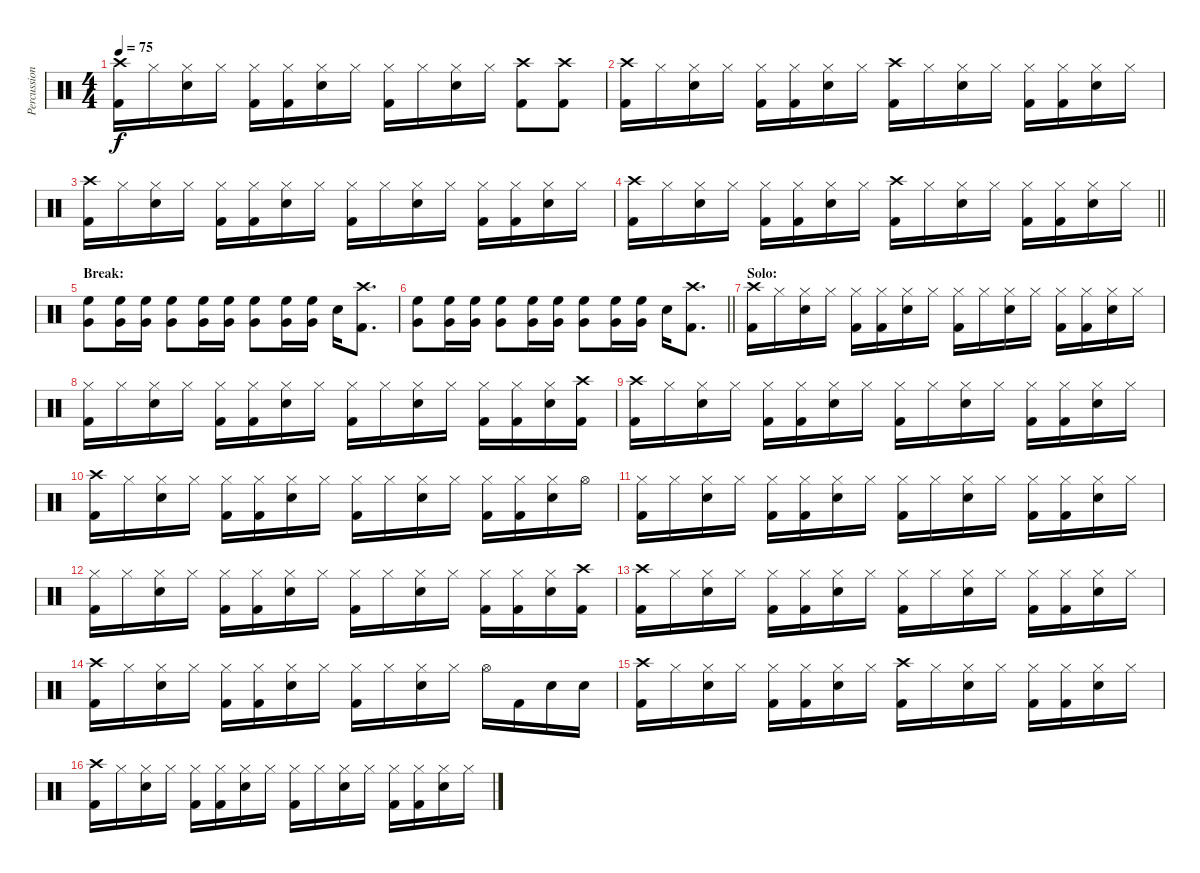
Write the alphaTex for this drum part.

\track ("Percussion" "Percussion") {instrument percussion}
\staff {score}
\articulation defaults
\ts (4 4)
\tempo 75
\clef neutral
\ks c
("Crash high (hit)" "Kick (hit) 2").16{dy f} "Hi-Hat (closed)".16 ("Hi-Hat (closed)" "Electric Snare (hit)").16 "Hi-Hat (closed)".16 ("Hi-Hat (closed)" "Kick (hit) 2").16 ("Hi-Hat (closed)" "Kick (hit) 2").16 ("Hi-Hat (closed)" "Electric Snare (hit)").16 "Hi-Hat (closed)".16 ("Hi-Hat (closed)" "Kick (hit) 2").16 "Hi-Hat (closed)".16 ("Hi-Hat (closed)" "Electric Snare (hit)").16 "Hi-Hat (closed)".16 ("Crash high (hit)" "Kick (hit) 2").8 ("Crash high (hit)" "Kick (hit) 2").8 |
("Crash high (hit)" "Kick (hit) 2").16 "Hi-Hat (closed)".16 ("Hi-Hat (closed)" "Electric Snare (hit)").16 "Hi-Hat (closed)".16 ("Hi-Hat (closed)" "Kick (hit) 2").16 ("Hi-Hat (closed)" "Kick (hit) 2").16 ("Hi-Hat (closed)" "Electric Snare (hit)").16 "Hi-Hat (closed)".16 ("Crash high (hit)" "Kick (hit) 2").16 "Hi-Hat (closed)".16 ("Hi-Hat (closed)" "Electric Snare (hit)").16 "Hi-Hat (closed)".16 ("Hi-Hat (closed)" "Kick (hit) 2").16 ("Hi-Hat (closed)" "Kick (hit) 2").16 ("Hi-Hat (closed)" "Electric Snare (hit)").16 "Hi-Hat (closed)".16 |
("Crash high (hit)" "Kick (hit) 2").16 "Hi-Hat (closed)".16 ("Hi-Hat (closed)" "Electric Snare (hit)").16 "Hi-Hat (closed)".16 ("Hi-Hat (closed)" "Kick (hit) 2").16 ("Hi-Hat (closed)" "Kick (hit) 2").16 ("Hi-Hat (closed)" "Electric Snare (hit)").16 "Hi-Hat (closed)".16 ("Hi-Hat (closed)" "Kick (hit) 2").16 "Hi-Hat (closed)".16 ("Hi-Hat (closed)" "Electric Snare (hit)").16 "Hi-Hat (closed)".16 ("Hi-Hat (closed)" "Kick (hit) 2").16 ("Hi-Hat (closed)" "Kick (hit) 2").16 ("Hi-Hat (closed)" "Electric Snare (hit)").16 "Hi-Hat (closed)".16 |
\barLineRight lightlight
("Crash high (hit)" "Kick (hit) 2").16 "Hi-Hat (closed)".16 ("Hi-Hat (closed)" "Electric Snare (hit)").16 "Hi-Hat (closed)".16 ("Hi-Hat (closed)" "Kick (hit) 2").16 ("Hi-Hat (closed)" "Kick (hit) 2").16 ("Hi-Hat (closed)" "Electric Snare (hit)").16 "Hi-Hat (closed)".16 ("Crash high (hit)" "Kick (hit) 2").16 "Hi-Hat (closed)".16 ("Hi-Hat (closed)" "Electric Snare (hit)").16 "Hi-Hat (closed)".16 ("Hi-Hat (closed)" "Kick (hit) 2").16 ("Hi-Hat (closed)" "Kick (hit) 2").16 ("Hi-Hat (closed)" "Electric Snare (hit)").16 "Hi-Hat (closed)".16 |
\section ("" "Break:")
("High Floor Tom (hit)" "Very Low Tom (hit)").8 ("High Floor Tom (hit)" "Very Low Tom (hit)").16 ("High Floor Tom (hit)" "Very Low Tom (hit)").16 ("High Floor Tom (hit)" "Very Low Tom (hit)").8 ("High Floor Tom (hit)" "Very Low Tom (hit)").16 ("High Floor Tom (hit)" "Very Low Tom (hit)").16 ("High Floor Tom (hit)" "Very Low Tom (hit)").8 ("High Floor Tom (hit)" "Very Low Tom (hit)").16 ("High Floor Tom (hit)" "Very Low Tom (hit)").16 "Electric Snare (hit)".16 ("Crash high (hit)" "Kick (hit) 2").8{d} |
\barLineRight lightlight
("High Floor Tom (hit)" "Very Low Tom (hit)").8 ("High Floor Tom (hit)" "Very Low Tom (hit)").16 ("High Floor Tom (hit)" "Very Low Tom (hit)").16 ("High Floor Tom (hit)" "Very Low Tom (hit)").8 ("High Floor Tom (hit)" "Very Low Tom (hit)").16 ("High Floor Tom (hit)" "Very Low Tom (hit)").16 ("High Floor Tom (hit)" "Very Low Tom (hit)").8 ("High Floor Tom (hit)" "Very Low Tom (hit)").16 ("High Floor Tom (hit)" "Very Low Tom (hit)").16 "Electric Snare (hit)".16 ("Crash high (hit)" "Kick (hit) 2").8{d} |
\section ("" "Solo:")
("Crash high (hit)" "Kick (hit) 2").16 "Hi-Hat (closed)".16 ("Hi-Hat (closed)" "Electric Snare (hit)").16 "Hi-Hat (closed)".16 ("Hi-Hat (closed)" "Kick (hit) 2").16 ("Hi-Hat (closed)" "Kick (hit) 2").16 ("Hi-Hat (closed)" "Electric Snare (hit)").16 "Hi-Hat (closed)".16 ("Hi-Hat (closed)" "Kick (hit) 2").16 "Hi-Hat (closed)".16 ("Hi-Hat (closed)" "Electric Snare (hit)").16 "Hi-Hat (closed)".16 ("Hi-Hat (closed)" "Kick (hit) 2").16 ("Hi-Hat (closed)" "Kick (hit) 2").16 ("Hi-Hat (closed)" "Electric Snare (hit)").16 "Hi-Hat (closed)".16 |
("Hi-Hat (closed)" "Kick (hit) 2").16 "Hi-Hat (closed)".16 ("Hi-Hat (closed)" "Electric Snare (hit)").16 "Hi-Hat (closed)".16 ("Hi-Hat (closed)" "Kick (hit) 2").16 ("Hi-Hat (closed)" "Kick (hit) 2").16 ("Hi-Hat (closed)" "Electric Snare (hit)").16 "Hi-Hat (closed)".16 ("Hi-Hat (closed)" "Kick (hit) 2").16 "Hi-Hat (closed)".16 ("Hi-Hat (closed)" "Electric Snare (hit)").16 "Hi-Hat (closed)".16 ("Hi-Hat (closed)" "Kick (hit) 2").16 ("Hi-Hat (closed)" "Kick (hit) 2").16 ("Hi-Hat (closed)" "Electric Snare (hit)").16 ("Crash high (hit)" "Kick (hit) 2").16 |
("Crash high (hit)" "Kick (hit) 2").16 "Hi-Hat (closed)".16 ("Hi-Hat (closed)" "Electric Snare (hit)").16 "Hi-Hat (closed)".16 ("Hi-Hat (closed)" "Kick (hit) 2").16 ("Hi-Hat (closed)" "Kick (hit) 2").16 ("Hi-Hat (closed)" "Electric Snare (hit)").16 "Hi-Hat (closed)".16 ("Hi-Hat (closed)" "Kick (hit) 2").16 "Hi-Hat (closed)".16 ("Hi-Hat (closed)" "Electric Snare (hit)").16 "Hi-Hat (closed)".16 ("Hi-Hat (closed)" "Kick (hit) 2").16 ("Hi-Hat (closed)" "Kick (hit) 2").16 ("Hi-Hat (closed)" "Electric Snare (hit)").16 "Hi-Hat (closed)".16 |
("Crash high (hit)" "Kick (hit) 2").16 "Hi-Hat (closed)".16 ("Hi-Hat (closed)" "Electric Snare (hit)").16 "Hi-Hat (closed)".16 ("Hi-Hat (closed)" "Kick (hit) 2").16 ("Hi-Hat (closed)" "Kick (hit) 2").16 ("Hi-Hat (closed)" "Electric Snare (hit)").16 "Hi-Hat (closed)".16 ("Hi-Hat (closed)" "Kick (hit) 2").16 "Hi-Hat (closed)".16 ("Hi-Hat (closed)" "Electric Snare (hit)").16 "Hi-Hat (closed)".16 ("Hi-Hat (closed)" "Kick (hit) 2").16 ("Hi-Hat (closed)" "Kick (hit) 2").16 ("Hi-Hat (closed)" "Electric Snare (hit)").16 "Hi-Hat (open)".16 |
("Hi-Hat (closed)" "Kick (hit) 2").16 "Hi-Hat (closed)".16 ("Hi-Hat (closed)" "Electric Snare (hit)").16 "Hi-Hat (closed)".16 ("Hi-Hat (closed)" "Kick (hit) 2").16 ("Hi-Hat (closed)" "Kick (hit) 2").16 ("Hi-Hat (closed)" "Electric Snare (hit)").16 "Hi-Hat (closed)".16 ("Hi-Hat (closed)" "Kick (hit) 2").16 "Hi-Hat (closed)".16 ("Hi-Hat (closed)" "Electric Snare (hit)").16 "Hi-Hat (closed)".16 ("Hi-Hat (closed)" "Kick (hit) 2").16 ("Hi-Hat (closed)" "Kick (hit) 2").16 ("Hi-Hat (closed)" "Electric Snare (hit)").16 "Hi-Hat (closed)".16 |
("Hi-Hat (closed)" "Kick (hit) 2").16 "Hi-Hat (closed)".16 ("Hi-Hat (closed)" "Electric Snare (hit)").16 "Hi-Hat (closed)".16 ("Hi-Hat (closed)" "Kick (hit) 2").16 ("Hi-Hat (closed)" "Kick (hit) 2").16 ("Hi-Hat (closed)" "Electric Snare (hit)").16 "Hi-Hat (closed)".16 ("Hi-Hat (closed)" "Kick (hit) 2").16 "Hi-Hat (closed)".16 ("Hi-Hat (closed)" "Electric Snare (hit)").16 "Hi-Hat (closed)".16 ("Hi-Hat (closed)" "Kick (hit) 2").16 ("Hi-Hat (closed)" "Kick (hit) 2").16 ("Hi-Hat (closed)" "Electric Snare (hit)").16 ("Crash high (hit)" "Kick (hit) 2").16 |
("Crash high (hit)" "Kick (hit) 2").16 "Hi-Hat (closed)".16 ("Hi-Hat (closed)" "Electric Snare (hit)").16 "Hi-Hat (closed)".16 ("Hi-Hat (closed)" "Kick (hit) 2").16 ("Hi-Hat (closed)" "Kick (hit) 2").16 ("Hi-Hat (closed)" "Electric Snare (hit)").16 "Hi-Hat (closed)".16 ("Hi-Hat (closed)" "Kick (hit) 2").16 "Hi-Hat (closed)".16 ("Hi-Hat (closed)" "Electric Snare (hit)").16 "Hi-Hat (closed)".16 ("Hi-Hat (closed)" "Kick (hit) 2").16 ("Hi-Hat (closed)" "Kick (hit) 2").16 ("Hi-Hat (closed)" "Electric Snare (hit)").16 "Hi-Hat (closed)".16 |
("Crash high (hit)" "Kick (hit) 2").16 "Hi-Hat (closed)".16 ("Hi-Hat (closed)" "Electric Snare (hit)").16 "Hi-Hat (closed)".16 ("Hi-Hat (closed)" "Kick (hit) 2").16 ("Hi-Hat (closed)" "Kick (hit) 2").16 ("Hi-Hat (closed)" "Electric Snare (hit)").16 "Hi-Hat (closed)".16 ("Hi-Hat (closed)" "Kick (hit) 2").16 "Hi-Hat (closed)".16 ("Hi-Hat (closed)" "Electric Snare (hit)").16 "Hi-Hat (closed)".16 "Hi-Hat (open)".16 "Kick (hit) 2".16 "Electric Snare (hit)".16 "Electric Snare (hit)".16 |
("Crash high (hit)" "Kick (hit) 2").16 "Hi-Hat (closed)".16 ("Hi-Hat (closed)" "Electric Snare (hit)").16 "Hi-Hat (closed)".16 ("Hi-Hat (closed)" "Kick (hit) 2").16 ("Hi-Hat (closed)" "Kick (hit) 2").16 ("Hi-Hat (closed)" "Electric Snare (hit)").16 "Hi-Hat (closed)".16 ("Crash high (hit)" "Kick (hit) 2").16 "Hi-Hat (closed)".16 ("Hi-Hat (closed)" "Electric Snare (hit)").16 "Hi-Hat (closed)".16 ("Hi-Hat (closed)" "Kick (hit) 2").16 ("Hi-Hat (closed)" "Kick (hit) 2").16 ("Hi-Hat (closed)" "Electric Snare (hit)").16 "Hi-Hat (closed)".16 |
("Crash high (hit)" "Kick (hit) 2").16 "Hi-Hat (closed)".16 ("Hi-Hat (closed)" "Electric Snare (hit)").16 "Hi-Hat (closed)".16 ("Hi-Hat (closed)" "Kick (hit) 2").16 ("Hi-Hat (closed)" "Kick (hit) 2").16 ("Hi-Hat (closed)" "Electric Snare (hit)").16 "Hi-Hat (closed)".16 ("Hi-Hat (closed)" "Kick (hit) 2").16 "Hi-Hat (closed)".16 ("Hi-Hat (closed)" "Electric Snare (hit)").16 "Hi-Hat (closed)".16 ("Hi-Hat (closed)" "Kick (hit) 2").16 ("Hi-Hat (closed)" "Kick (hit) 2").16 ("Hi-Hat (closed)" "Electric Snare (hit)").16 "Hi-Hat (closed)".16
